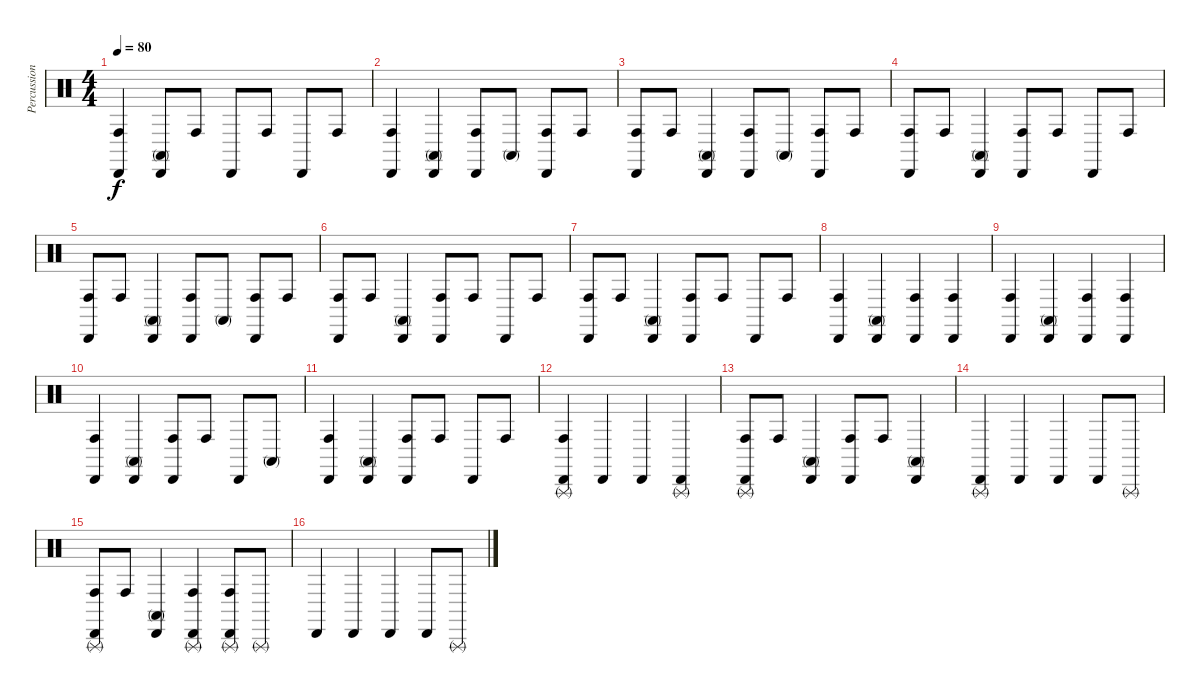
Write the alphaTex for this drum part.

\track ("Percussions" "Percussion") {instrument percussion}
\staff {score}
\articulation defaults
\ts (4 4)
\tempo 80
\clef neutral
\ks c
("Cabasa (hit)" "Conga high (hit)").4{dy f} ("Cabasa (hit)" "Conga high (mute)").8 "Conga high (hit)".8 "Cabasa (hit)".8 "Conga high (hit)".8 "Cabasa (hit)".8 "Conga high (hit)".8 |
("Cabasa (hit)" "Conga high (hit)").4 ("Cabasa (hit)" "Conga high (mute)").4 ("Cabasa (hit)" "Conga high (hit)").8 "Conga high (mute)".8 ("Cabasa (hit)" "Conga high (hit)").8 "Conga high (hit)".8 |
("Cabasa (hit)" "Conga high (hit)").8 "Conga high (hit)".8 ("Cabasa (hit)" "Conga high (mute)").4 ("Cabasa (hit)" "Conga high (hit)").8 "Conga high (mute)".8 ("Cabasa (hit)" "Conga high (hit)").8 "Conga high (hit)".8 |
("Cabasa (hit)" "Conga high (hit)").8 "Conga high (hit)".8 ("Cabasa (hit)" "Conga high (mute)").4 ("Cabasa (hit)" "Conga high (hit)").8 "Conga high (hit)".8 "Cabasa (hit)".8 "Conga high (hit)".8 |
("Cabasa (hit)" "Conga high (hit)").8 "Conga high (hit)".8 ("Cabasa (hit)" "Conga high (mute)").4 ("Cabasa (hit)" "Conga high (hit)").8 "Conga high (mute)".8 ("Cabasa (hit)" "Conga high (hit)").8 "Conga high (hit)".8 |
("Cabasa (hit)" "Conga high (hit)").8 "Conga high (hit)".8 ("Cabasa (hit)" "Conga high (mute)").4 ("Cabasa (hit)" "Conga high (hit)").8 "Conga high (hit)".8 "Cabasa (hit)".8 "Conga high (hit)".8 |
("Cabasa (hit)" "Conga high (hit)").8 "Conga high (hit)".8 ("Cabasa (hit)" "Conga high (mute)").4 ("Cabasa (hit)" "Conga high (hit)").8 "Conga high (hit)".8 "Cabasa (hit)".8 "Conga high (hit)".8 |
("Cabasa (hit)" "Conga high (hit)").4 ("Cabasa (hit)" "Conga high (mute)").4 ("Cabasa (hit)" "Conga high (hit)").4 ("Cabasa (hit)" "Conga high (hit)").4 |
("Cabasa (hit)" "Conga high (hit)").4 ("Cabasa (hit)" "Conga high (mute)").4 ("Cabasa (hit)" "Conga high (hit)").4 ("Cabasa (hit)" "Conga high (hit)").4 |
("Cabasa (hit)" "Conga high (hit)").4 ("Cabasa (hit)" "Conga high (mute)").4 ("Cabasa (hit)" "Conga high (hit)").8 "Conga high (hit)".8 "Cabasa (hit)".8 "Conga high (mute)".8 |
("Cabasa (hit)" "Conga high (hit)").4 ("Cabasa (hit)" "Conga high (mute)").4 ("Cabasa (hit)" "Conga high (hit)").8 "Conga high (hit)".8 "Cabasa (hit)".8 "Conga high (hit)".8 |
("Cabasa (hit)" "Triangle (rnute)" "Conga high (hit)").4 "Cabasa (hit)".4 "Cabasa (hit)".4 ("Cabasa (hit)" "Triangle (rnute)").4 |
("Cabasa (hit)" "Triangle (rnute)" "Conga high (hit)").8 "Conga high (hit)".8 ("Cabasa (hit)" "Conga high (mute)").4 ("Cabasa (hit)" "Conga high (hit)").8 "Conga high (hit)".8 ("Cabasa (hit)" "Conga high (mute)").4 |
("Cabasa (hit)" "Triangle (rnute)").4 "Cabasa (hit)".4 "Cabasa (hit)".4 "Cabasa (hit)".8 "Triangle (rnute)".8 |
("Cabasa (hit)" "Triangle (rnute)" "Conga high (hit)").8 "Conga high (hit)".8 ("Cabasa (hit)" "Conga high (mute)").4 ("Cabasa (hit)" "Triangle (rnute)" "Conga high (hit)").4 ("Cabasa (hit)" "Triangle (rnute)" "Conga high (hit)").8 "Triangle (rnute)".8 |
"Cabasa (hit)".4 "Cabasa (hit)".4 "Cabasa (hit)".4 "Cabasa (hit)".8 "Triangle (rnute)".8
